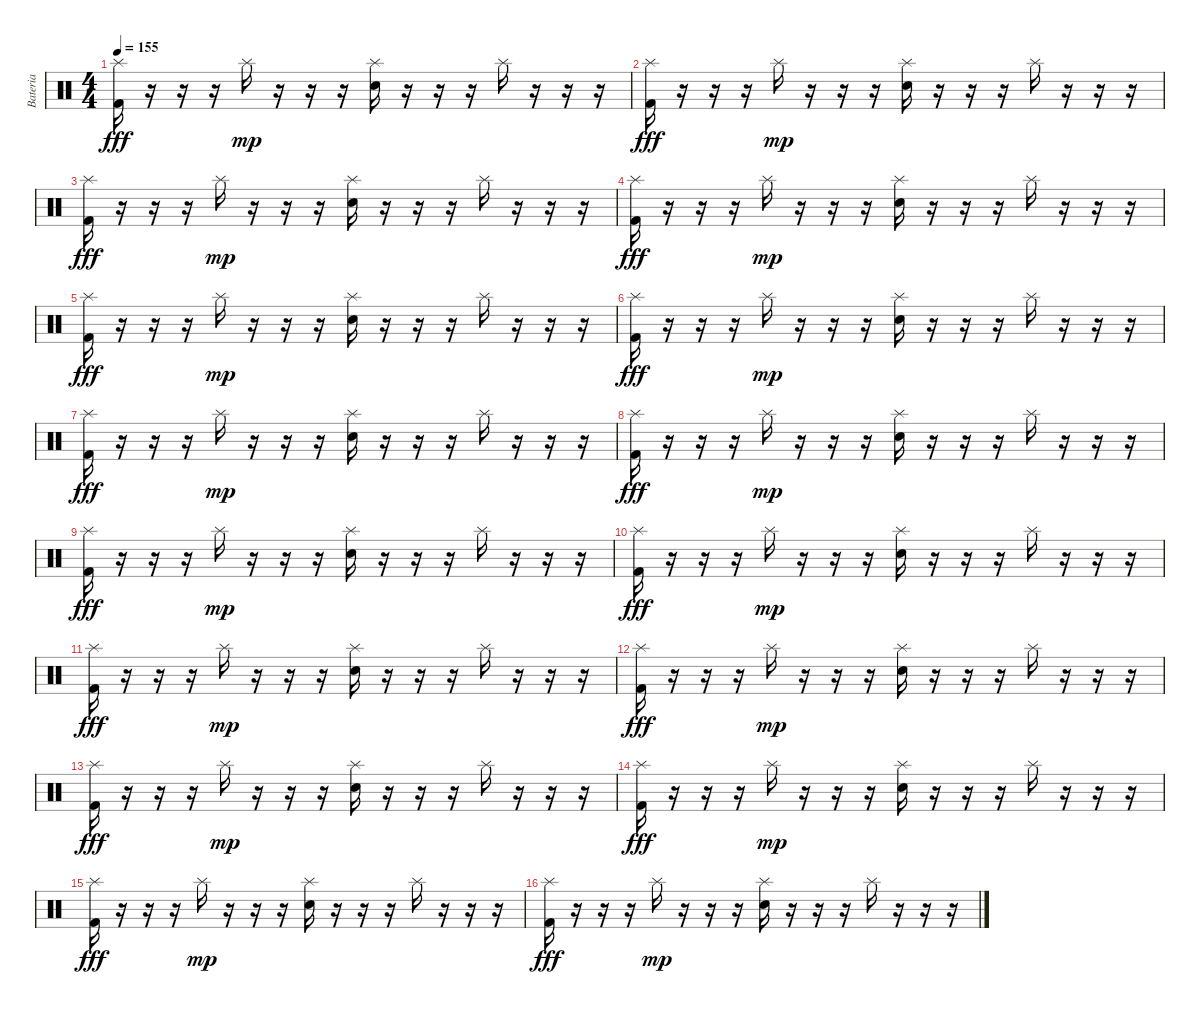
\track ("Bateria" "Bateria") {instrument percussion}
\staff {score}
\articulation defaults
\ts (4 4)
\tempo 155
\clef neutral
\ks c
("Splash (hit)" "Kick (hit) 2").16{dy fff} r.16 r.16 r.16 "Splash (hit)".16{dy mp} r.16 r.16 r.16 ("Splash (hit)" "Electric Snare (hit)").16 r.16 r.16 r.16 "Splash (hit)".16 r.16 r.16 r.16 |
("Splash (hit)" "Kick (hit) 2").16{dy fff} r.16 r.16 r.16 "Splash (hit)".16{dy mp} r.16 r.16 r.16 ("Splash (hit)" "Electric Snare (hit)").16 r.16 r.16 r.16 "Splash (hit)".16 r.16 r.16 r.16 |
("Splash (hit)" "Kick (hit) 2").16{dy fff} r.16 r.16 r.16 "Splash (hit)".16{dy mp} r.16 r.16 r.16 ("Splash (hit)" "Electric Snare (hit)").16 r.16 r.16 r.16 "Splash (hit)".16 r.16 r.16 r.16 |
("Splash (hit)" "Kick (hit) 2").16{dy fff} r.16 r.16 r.16 "Splash (hit)".16{dy mp} r.16 r.16 r.16 ("Splash (hit)" "Electric Snare (hit)").16 r.16 r.16 r.16 "Splash (hit)".16 r.16 r.16 r.16 |
("Splash (hit)" "Kick (hit) 2").16{dy fff} r.16 r.16 r.16 "Splash (hit)".16{dy mp} r.16 r.16 r.16 ("Splash (hit)" "Electric Snare (hit)").16 r.16 r.16 r.16 "Splash (hit)".16 r.16 r.16 r.16 |
("Splash (hit)" "Kick (hit) 2").16{dy fff} r.16 r.16 r.16 "Splash (hit)".16{dy mp} r.16 r.16 r.16 ("Splash (hit)" "Electric Snare (hit)").16 r.16 r.16 r.16 "Splash (hit)".16 r.16 r.16 r.16 |
("Splash (hit)" "Kick (hit) 2").16{dy fff} r.16 r.16 r.16 "Splash (hit)".16{dy mp} r.16 r.16 r.16 ("Splash (hit)" "Electric Snare (hit)").16 r.16 r.16 r.16 "Splash (hit)".16 r.16 r.16 r.16 |
("Splash (hit)" "Kick (hit) 2").16{dy fff} r.16 r.16 r.16 "Splash (hit)".16{dy mp} r.16 r.16 r.16 ("Splash (hit)" "Electric Snare (hit)").16 r.16 r.16 r.16 "Splash (hit)".16 r.16 r.16 r.16 |
("Splash (hit)" "Kick (hit) 2").16{dy fff} r.16 r.16 r.16 "Splash (hit)".16{dy mp} r.16 r.16 r.16 ("Splash (hit)" "Electric Snare (hit)").16 r.16 r.16 r.16 "Splash (hit)".16 r.16 r.16 r.16 |
("Splash (hit)" "Kick (hit) 2").16{dy fff} r.16 r.16 r.16 "Splash (hit)".16{dy mp} r.16 r.16 r.16 ("Splash (hit)" "Electric Snare (hit)").16 r.16 r.16 r.16 "Splash (hit)".16 r.16 r.16 r.16 |
("Splash (hit)" "Kick (hit) 2").16{dy fff} r.16 r.16 r.16 "Splash (hit)".16{dy mp} r.16 r.16 r.16 ("Splash (hit)" "Electric Snare (hit)").16 r.16 r.16 r.16 "Splash (hit)".16 r.16 r.16 r.16 |
("Splash (hit)" "Kick (hit) 2").16{dy fff} r.16 r.16 r.16 "Splash (hit)".16{dy mp} r.16 r.16 r.16 ("Splash (hit)" "Electric Snare (hit)").16 r.16 r.16 r.16 "Splash (hit)".16 r.16 r.16 r.16 |
("Splash (hit)" "Kick (hit) 2").16{dy fff} r.16 r.16 r.16 "Splash (hit)".16{dy mp} r.16 r.16 r.16 ("Splash (hit)" "Electric Snare (hit)").16 r.16 r.16 r.16 "Splash (hit)".16 r.16 r.16 r.16 |
("Splash (hit)" "Kick (hit) 2").16{dy fff} r.16 r.16 r.16 "Splash (hit)".16{dy mp} r.16 r.16 r.16 ("Splash (hit)" "Electric Snare (hit)").16 r.16 r.16 r.16 "Splash (hit)".16 r.16 r.16 r.16 |
("Splash (hit)" "Kick (hit) 2").16{dy fff} r.16 r.16 r.16 "Splash (hit)".16{dy mp} r.16 r.16 r.16 ("Splash (hit)" "Electric Snare (hit)").16 r.16 r.16 r.16 "Splash (hit)".16 r.16 r.16 r.16 |
("Splash (hit)" "Kick (hit) 2").16{dy fff} r.16 r.16 r.16 "Splash (hit)".16{dy mp} r.16 r.16 r.16 ("Splash (hit)" "Electric Snare (hit)").16 r.16 r.16 r.16 "Splash (hit)".16 r.16 r.16 r.16
